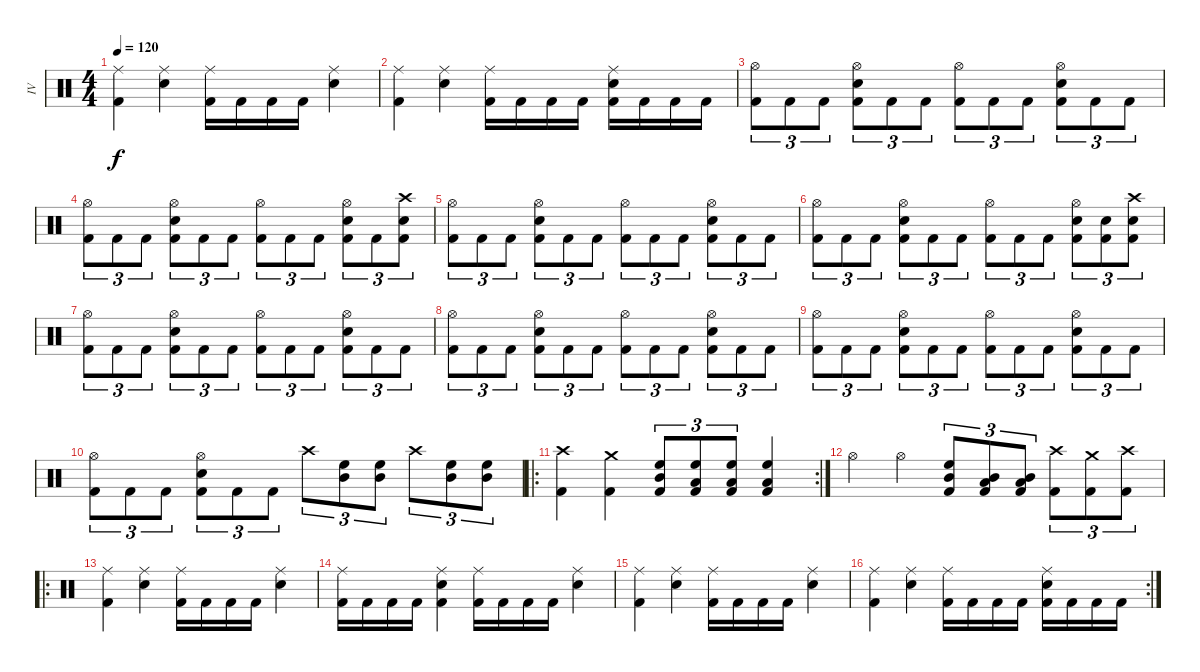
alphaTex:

\track ("IV" "IV") {instrument percussion}
\staff {score}
\articulation defaults
\ts (4 4)
\tempo 120
\clef neutral
\ks c
("Ride (middle)" "Kick (hit) 2").4{dy f} ("Ride (middle)" "Snare (hit) 2").4 ("Ride (middle)" "Kick (hit) 2").16 "Kick (hit) 2".16 "Kick (hit) 2".16 "Kick (hit) 2".16 ("Ride (middle)" "Snare (hit) 2").4 |
("Ride (middle)" "Kick (hit) 2").4 ("Ride (middle)" "Snare (hit) 2").4 ("Ride (middle)" "Kick (hit) 2").16 "Kick (hit) 2".16 "Kick (hit) 2".16 "Kick (hit) 2".16 ("Ride (middle)" "Snare (hit) 2" "Kick (hit) 2").16 "Kick (hit) 2".16 "Kick (hit) 2".16 "Kick (hit) 2".16 |
("Hi-Hat (open)" "Kick (hit) 2").8{tu (3 2)} "Kick (hit) 2".8{tu (3 2)} "Kick (hit) 2".8{tu (3 2)} ("Hi-Hat (open)" "Snare (hit) 2" "Kick (hit) 2").8{tu (3 2)} "Kick (hit) 2".8{tu (3 2)} "Kick (hit) 2".8{tu (3 2)} ("Hi-Hat (open)" "Kick (hit) 2").8{tu (3 2)} "Kick (hit) 2".8{tu (3 2)} "Kick (hit) 2".8{tu (3 2)} ("Hi-Hat (open)" "Snare (hit) 2" "Kick (hit) 2").8{tu (3 2)} "Kick (hit) 2".8{tu (3 2)} "Kick (hit) 2".8{tu (3 2)} |
("Hi-Hat (open)" "Kick (hit) 2").8{tu (3 2)} "Kick (hit) 2".8{tu (3 2)} "Kick (hit) 2".8{tu (3 2)} ("Hi-Hat (open)" "Snare (hit) 2" "Kick (hit) 2").8{tu (3 2)} "Kick (hit) 2".8{tu (3 2)} "Kick (hit) 2".8{tu (3 2)} ("Hi-Hat (open)" "Kick (hit) 2").8{tu (3 2)} "Kick (hit) 2".8{tu (3 2)} "Kick (hit) 2".8{tu (3 2)} ("Hi-Hat (open)" "Snare (hit) 2" "Kick (hit) 2").8{tu (3 2)} "Kick (hit) 2".8{tu (3 2)} ("Crash high (hit)" "Snare (hit) 2" "Kick (hit) 2").8{tu (3 2)} |
("Hi-Hat (open)" "Kick (hit) 2").8{tu (3 2)} "Kick (hit) 2".8{tu (3 2)} "Kick (hit) 2".8{tu (3 2)} ("Hi-Hat (open)" "Snare (hit) 2" "Kick (hit) 2").8{tu (3 2)} "Kick (hit) 2".8{tu (3 2)} "Kick (hit) 2".8{tu (3 2)} ("Hi-Hat (open)" "Kick (hit) 2").8{tu (3 2)} "Kick (hit) 2".8{tu (3 2)} "Kick (hit) 2".8{tu (3 2)} ("Hi-Hat (open)" "Snare (hit) 2" "Kick (hit) 2").8{tu (3 2)} "Kick (hit) 2".8{tu (3 2)} "Kick (hit) 2".8{tu (3 2)} |
("Hi-Hat (open)" "Kick (hit) 2").8{tu (3 2)} "Kick (hit) 2".8{tu (3 2)} "Kick (hit) 2".8{tu (3 2)} ("Hi-Hat (open)" "Snare (hit) 2" "Kick (hit) 2").8{tu (3 2)} "Kick (hit) 2".8{tu (3 2)} "Kick (hit) 2".8{tu (3 2)} ("Hi-Hat (open)" "Kick (hit) 2").8{tu (3 2)} "Kick (hit) 2".8{tu (3 2)} "Kick (hit) 2".8{tu (3 2)} ("Hi-Hat (open)" "Snare (hit) 2" "Kick (hit) 2").8{tu (3 2)} ("Snare (hit) 2" "Kick (hit) 2").8{tu (3 2)} ("Crash high (hit)" "Snare (hit) 2" "Kick (hit) 2").8{tu (3 2)} |
("Hi-Hat (open)" "Kick (hit) 2").8{tu (3 2)} "Kick (hit) 2".8{tu (3 2)} "Kick (hit) 2".8{tu (3 2)} ("Hi-Hat (open)" "Snare (hit) 2" "Kick (hit) 2").8{tu (3 2)} "Kick (hit) 2".8{tu (3 2)} "Kick (hit) 2".8{tu (3 2)} ("Hi-Hat (open)" "Kick (hit) 2").8{tu (3 2)} "Kick (hit) 2".8{tu (3 2)} "Kick (hit) 2".8{tu (3 2)} ("Hi-Hat (open)" "Snare (hit) 2" "Kick (hit) 2").8{tu (3 2)} "Kick (hit) 2".8{tu (3 2)} "Kick (hit) 2".8{tu (3 2)} |
("Hi-Hat (open)" "Kick (hit) 2").8{tu (3 2)} "Kick (hit) 2".8{tu (3 2)} "Kick (hit) 2".8{tu (3 2)} ("Hi-Hat (open)" "Snare (hit) 2" "Kick (hit) 2").8{tu (3 2)} "Kick (hit) 2".8{tu (3 2)} "Kick (hit) 2".8{tu (3 2)} ("Hi-Hat (open)" "Kick (hit) 2").8{tu (3 2)} "Kick (hit) 2".8{tu (3 2)} "Kick (hit) 2".8{tu (3 2)} ("Hi-Hat (open)" "Snare (hit) 2" "Kick (hit) 2").8{tu (3 2)} "Kick (hit) 2".8{tu (3 2)} "Kick (hit) 2".8{tu (3 2)} |
("Hi-Hat (open)" "Kick (hit) 2").8{tu (3 2)} "Kick (hit) 2".8{tu (3 2)} "Kick (hit) 2".8{tu (3 2)} ("Hi-Hat (open)" "Snare (hit) 2" "Kick (hit) 2").8{tu (3 2)} "Kick (hit) 2".8{tu (3 2)} "Kick (hit) 2".8{tu (3 2)} ("Hi-Hat (open)" "Kick (hit) 2").8{tu (3 2)} "Kick (hit) 2".8{tu (3 2)} "Kick (hit) 2".8{tu (3 2)} ("Hi-Hat (open)" "Snare (hit) 2" "Kick (hit) 2").8{tu (3 2)} "Kick (hit) 2".8{tu (3 2)} "Kick (hit) 2".8{tu (3 2)} |
("Hi-Hat (open)" "Kick (hit) 2").8{tu (3 2)} "Kick (hit) 2".8{tu (3 2)} "Kick (hit) 2".8{tu (3 2)} ("Hi-Hat (open)" "Snare (hit) 2" "Kick (hit) 2").8{tu (3 2)} "Kick (hit) 2".8{tu (3 2)} "Kick (hit) 2".8{tu (3 2)} "Crash high (hit)".8{tu (3 2)} ("High Floor Tom (hit)" "Mid Tom (hit)").8{tu (3 2)} ("High Floor Tom (hit)" "Mid Tom (hit)").8{tu (3 2)} "Crash high (hit)".8{tu (3 2)} ("High Floor Tom (hit)" "Mid Tom (hit)").8{tu (3 2)} ("High Floor Tom (hit)" "Mid Tom (hit)").8{tu (3 2)} |
\ro
\rc 2
("Crash high (hit)" "Kick (hit) 2").4 ("Crash medium (hit)" "Kick (hit) 2").4 ("High Floor Tom (hit)" "Mid Tom (hit)" "Kick (hit) 2").8{tu (3 2)} ("High Floor Tom (hit)" "Low Tom (hit)" "Kick (hit) 2").8{tu (3 2)} ("High Floor Tom (hit)" "Low Tom (hit)" "Kick (hit) 2").8{tu (3 2)} ("High Floor Tom (hit)" "Low Tom (hit)" "Kick (hit) 2").4 |
"Hi-Hat (open)".4 "Hi-Hat (open)".4 ("High Floor Tom (hit)" "Mid Tom (hit)" "Kick (hit) 2").8{tu (3 2)} ("Mid Tom (hit)" "Low Tom (hit)" "Kick (hit) 2").8{tu (3 2)} ("Mid Tom (hit)" "Low Tom (hit)" "Kick (hit) 2").8{tu (3 2)} ("Crash high (hit)" "Kick (hit) 2").8{tu (3 2)} ("Crash medium (hit)" "Kick (hit) 2").8{tu (3 2)} ("Crash high (hit)" "Kick (hit) 2").8{tu (3 2)} |
\ro
("Ride (middle)" "Kick (hit) 2").4 ("Ride (middle)" "Snare (hit) 2").4 ("Ride (middle)" "Kick (hit) 2").16 "Kick (hit) 2".16 "Kick (hit) 2".16 "Kick (hit) 2".16 ("Ride (middle)" "Snare (hit) 2").4 |
("Ride (middle)" "Kick (hit) 2").16 "Kick (hit) 2".16 "Kick (hit) 2".16 "Kick (hit) 2".16 ("Ride (middle)" "Snare (hit) 2" "Kick (hit) 2").4 ("Ride (middle)" "Kick (hit) 2").16 "Kick (hit) 2".16 "Kick (hit) 2".16 "Kick (hit) 2".16 ("Ride (middle)" "Snare (hit) 2").4 |
("Ride (middle)" "Kick (hit) 2").4 ("Ride (middle)" "Snare (hit) 2").4 ("Ride (middle)" "Kick (hit) 2").16 "Kick (hit) 2".16 "Kick (hit) 2".16 "Kick (hit) 2".16 ("Ride (middle)" "Snare (hit) 2").4 |
\rc 2
("Ride (middle)" "Kick (hit) 2").4 ("Ride (middle)" "Snare (hit) 2").4 ("Ride (middle)" "Kick (hit) 2").16 "Kick (hit) 2".16 "Kick (hit) 2".16 "Kick (hit) 2".16 ("Ride (middle)" "Snare (hit) 2" "Kick (hit) 2").16 "Kick (hit) 2".16 "Kick (hit) 2".16 "Kick (hit) 2".16
